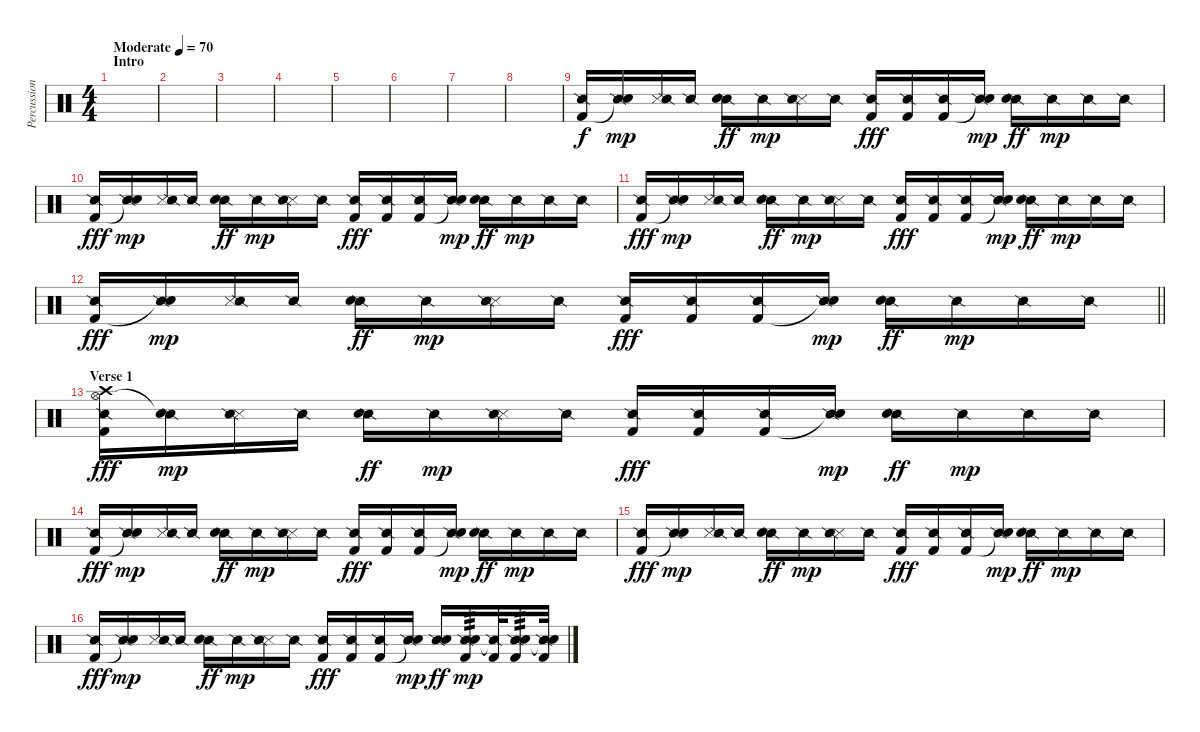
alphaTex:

\track ("Percussion" "Percussion") {instrument percussion}
\staff {score}
\articulation defaults
\ts (4 4)
\section ("" "Intro")
\tempo (70 "Moderate")
\clef neutral
\ks c
|
|
|
|
|
|
|
|
("Snare (side stick) 2" "Kick (hit) 2").16 ("Snare (side stick) 2" "Snare (hit)"{t}).16{dy mp} ("Snare (side stick) 3" "Snare (side stick) 2").16 "Snare (side stick) 2".16 ("Snare (side stick) 2" "Electric Snare (hit)").16{dy ff} "Snare (side stick) 2".16{dy mp} ("Snare (side stick) 3" "Snare (side stick) 2").16 "Snare (side stick) 2".16 ("Snare (side stick) 2" "Kick (hit) 2").16{dy fff} ("Snare (side stick) 2" "Kick (hit) 2").16 ("Snare (side stick) 2" "Kick (hit) 2").16 ("Snare (side stick) 2" "Snare (hit)"{t}).16{dy mp} ("Snare (side stick) 2" "Electric Snare (hit)").16{dy ff} "Snare (side stick) 2".16{dy mp} "Snare (side stick) 2".16 "Snare (side stick) 2".16 |
("Snare (side stick) 2" "Kick (hit) 2").16{dy fff} ("Snare (side stick) 2" "Snare (hit)"{t}).16{dy mp} ("Snare (side stick) 3" "Snare (side stick) 2").16 "Snare (side stick) 2".16 ("Snare (side stick) 2" "Electric Snare (hit)").16{dy ff} "Snare (side stick) 2".16{dy mp} ("Snare (side stick) 3" "Snare (side stick) 2").16 "Snare (side stick) 2".16 ("Snare (side stick) 2" "Kick (hit) 2").16{dy fff} ("Snare (side stick) 2" "Kick (hit) 2").16 ("Snare (side stick) 2" "Kick (hit) 2").16 ("Snare (side stick) 2" "Snare (hit)"{t}).16{dy mp} ("Snare (side stick) 2" "Electric Snare (hit)").16{dy ff} "Snare (side stick) 2".16{dy mp} "Snare (side stick) 2".16 "Snare (side stick) 2".16 |
("Snare (side stick) 2" "Kick (hit) 2").16{dy fff} ("Snare (side stick) 2" "Snare (hit)"{t}).16{dy mp} ("Snare (side stick) 3" "Snare (side stick) 2").16 "Snare (side stick) 2".16 ("Snare (side stick) 2" "Electric Snare (hit)").16{dy ff} "Snare (side stick) 2".16{dy mp} ("Snare (side stick) 3" "Snare (side stick) 2").16 "Snare (side stick) 2".16 ("Snare (side stick) 2" "Kick (hit) 2").16{dy fff} ("Snare (side stick) 2" "Kick (hit) 2").16 ("Snare (side stick) 2" "Kick (hit) 2").16 ("Snare (side stick) 2" "Snare (hit)"{t}).16{dy mp} ("Snare (side stick) 2" "Electric Snare (hit)").16{dy ff} "Snare (side stick) 2".16{dy mp} "Snare (side stick) 2".16 "Snare (side stick) 2".16 |
\barLineRight lightlight
("Snare (side stick) 2" "Kick (hit) 2").16{dy fff} ("Snare (side stick) 2" "Snare (hit)"{t}).16{dy mp} ("Snare (side stick) 3" "Snare (side stick) 2").16 "Snare (side stick) 2".16 ("Snare (side stick) 2" "Electric Snare (hit)").16{dy ff} "Snare (side stick) 2".16{dy mp} ("Snare (side stick) 3" "Snare (side stick) 2").16 "Snare (side stick) 2".16 ("Snare (side stick) 2" "Kick (hit) 2").16{dy fff} ("Snare (side stick) 2" "Kick (hit) 2").16 ("Snare (side stick) 2" "Kick (hit) 2").16 ("Snare (side stick) 2" "Snare (hit)"{t}).16{dy mp} ("Snare (side stick) 2" "Electric Snare (hit)").16{dy ff} "Snare (side stick) 2".16{dy mp} "Snare (side stick) 2".16 "Snare (side stick) 2".16 |
\section ("" "Verse 1")
("Crash high (hit)" "Hi-Hat (open)" "Snare (side stick) 2" "Kick (hit) 2").16{dy fff} ("Snare (side stick) 2" "Snare (hit)"{t}).16{dy mp} ("Snare (side stick) 3" "Snare (side stick) 2").16 "Snare (side stick) 2".16 ("Snare (side stick) 2" "Electric Snare (hit)").16{dy ff} "Snare (side stick) 2".16{dy mp} ("Snare (side stick) 3" "Snare (side stick) 2").16 "Snare (side stick) 2".16 ("Snare (side stick) 2" "Kick (hit) 2").16{dy fff} ("Snare (side stick) 2" "Kick (hit) 2").16 ("Snare (side stick) 2" "Kick (hit) 2").16 ("Snare (side stick) 2" "Snare (hit)"{t}).16{dy mp} ("Snare (side stick) 2" "Electric Snare (hit)").16{dy ff} "Snare (side stick) 2".16{dy mp} "Snare (side stick) 2".16 "Snare (side stick) 2".16 |
("Snare (side stick) 2" "Kick (hit) 2").16{dy fff} ("Snare (side stick) 2" "Snare (hit)"{t}).16{dy mp} ("Snare (side stick) 3" "Snare (side stick) 2").16 "Snare (side stick) 2".16 ("Snare (side stick) 2" "Electric Snare (hit)").16{dy ff} "Snare (side stick) 2".16{dy mp} ("Snare (side stick) 3" "Snare (side stick) 2").16 "Snare (side stick) 2".16 ("Snare (side stick) 2" "Kick (hit) 2").16{dy fff} ("Snare (side stick) 2" "Kick (hit) 2").16 ("Snare (side stick) 2" "Kick (hit) 2").16 ("Snare (side stick) 2" "Snare (hit)"{t}).16{dy mp} ("Snare (side stick) 2" "Electric Snare (hit)").16{dy ff} "Snare (side stick) 2".16{dy mp} "Snare (side stick) 2".16 "Snare (side stick) 2".16 |
("Snare (side stick) 2" "Kick (hit) 2").16{dy fff} ("Snare (side stick) 2" "Snare (hit)"{t}).16{dy mp} ("Snare (side stick) 3" "Snare (side stick) 2").16 "Snare (side stick) 2".16 ("Snare (side stick) 2" "Electric Snare (hit)").16{dy ff} "Snare (side stick) 2".16{dy mp} ("Snare (side stick) 3" "Snare (side stick) 2").16 "Snare (side stick) 2".16 ("Snare (side stick) 2" "Kick (hit) 2").16{dy fff} ("Snare (side stick) 2" "Kick (hit) 2").16 ("Snare (side stick) 2" "Kick (hit) 2").16 ("Snare (side stick) 2" "Snare (hit)"{t}).16{dy mp} ("Snare (side stick) 2" "Electric Snare (hit)").16{dy ff} "Snare (side stick) 2".16{dy mp} "Snare (side stick) 2".16 "Snare (side stick) 2".16 |
("Snare (side stick) 2" "Kick (hit) 2").16{dy fff} ("Snare (side stick) 2" "Snare (hit)"{t}).16{dy mp} ("Snare (side stick) 3" "Snare (side stick) 2").16 "Snare (side stick) 2".16 ("Snare (side stick) 2" "Electric Snare (hit)").16{dy ff} "Snare (side stick) 2".16{dy mp} ("Snare (side stick) 3" "Snare (side stick) 2").16 "Snare (side stick) 2".16 ("Snare (side stick) 2" "Kick (hit) 2").16{dy fff} ("Snare (side stick) 2" "Kick (hit) 2").16 ("Snare (side stick) 2" "Kick (hit) 2").16 ("Snare (side stick) 2" "Snare (hit)"{t}).16{dy mp} ("Snare (side stick) 2" "Electric Snare (hit)").16{dy ff} ("Snare (side stick) 2" "Electric Snare (hit)" "Kick (hit) 2").16{tp 3 dy mp} ("Snare (side stick) 2"{t} "Kick (hit) 2").32 ("Snare (side stick) 2" "Electric Snare (hit)" "Kick (hit) 2").16{tp 3} ("Snare (side stick) 2"{t} "Electric Snare (hit)" "Kick (hit) 2").32
